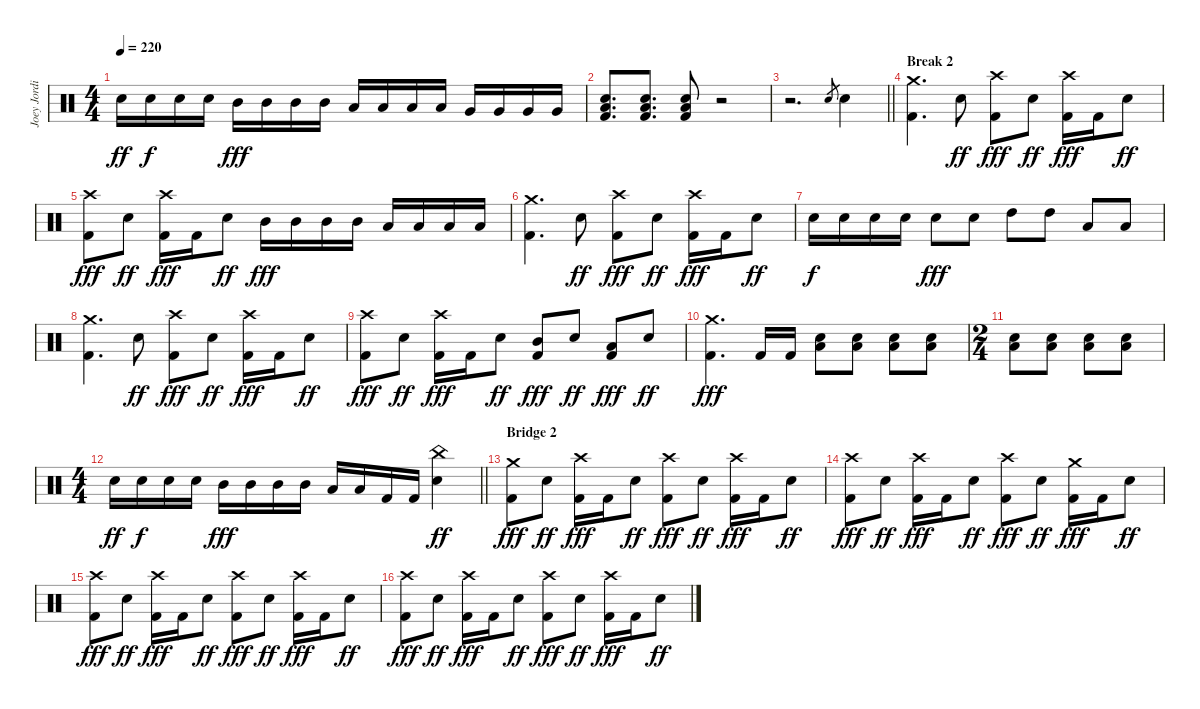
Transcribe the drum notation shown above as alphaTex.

\track ("Joey Jordison" "Joey Jordi") {instrument percussion}
\staff {score}
\articulation defaults
\ts (4 4)
\tempo 220
\clef neutral
\ks c "Electric Snare (hit)".16{dy ff} "Electric Snare (hit)".16{dy f} "Electric Snare (hit)".16 "Electric Snare (hit)".16 "Mid Tom (hit)".16{dy fff} "Mid Tom (hit)".16 "Mid Tom (hit)".16 "Mid Tom (hit)".16 "Low Tom (hit)".16 "Low Tom (hit)".16 "Low Tom (hit)".16 "Low Tom (hit)".16 "Very Low Tom (hit)".16 "Very Low Tom (hit)".16 "Very Low Tom (hit)".16 "Very Low Tom (hit)".16
|
("Electric Snare (hit)" "Low Floor Tom (hit)" "Kick (hit) 2").8{d} ("Electric Snare (hit)" "Low Floor Tom (hit)" "Kick (hit) 2").8{d} ("Electric Snare (hit)" "Low Floor Tom (hit)" "Kick (hit) 2").8 r.2 |
\barLineRight lightlight
r.2{d} "Electric Snare (hit)".8{gr} "Electric Snare (hit)".4 |
\section ("" "Break 2")
("Crash medium (hit)" "Kick (hit) 2").4{d} "Electric Snare (hit)".8{dy ff} ("Crash high (hit)" "Kick (hit) 2").8{dy fff} "Electric Snare (hit)".8{dy ff} ("Crash high (hit)" "Kick (hit) 2").16{dy fff} "Kick (hit) 2".16 "Electric Snare (hit)".8{dy ff} |
("Crash high (hit)" "Kick (hit) 2").8{dy fff} "Electric Snare (hit)".8{dy ff} ("Crash high (hit)" "Kick (hit) 2").16{dy fff} "Kick (hit) 2".16 "Electric Snare (hit)".8{dy ff} "Mid Tom (hit)".16{dy fff} "Mid Tom (hit)".16 "Mid Tom (hit)".16 "Mid Tom (hit)".16 "Low Tom (hit)".16 "Low Tom (hit)".16 "Low Tom (hit)".16 "Low Tom (hit)".16 |
("Crash medium (hit)" "Kick (hit) 2").4{d} "Electric Snare (hit)".8{dy ff} ("Crash high (hit)" "Kick (hit) 2").8{dy fff} "Electric Snare (hit)".8{dy ff} ("Crash high (hit)" "Kick (hit) 2").16{dy fff} "Kick (hit) 2".16 "Electric Snare (hit)".8{dy ff} |
"Electric Snare (hit)".16{dy f} "Electric Snare (hit)".16 "Electric Snare (hit)".16 "Electric Snare (hit)".16 "Electric Snare (hit)".8{dy fff} "Electric Snare (hit)".8 "High Tom (hit)".8 "High Tom (hit)".8 "Low Tom (hit)".8 "Low Tom (hit)".8 |
("Crash medium (hit)" "Kick (hit) 2").4{d} "Electric Snare (hit)".8{dy ff} ("Crash high (hit)" "Kick (hit) 2").8{dy fff} "Electric Snare (hit)".8{dy ff} ("Crash high (hit)" "Kick (hit) 2").16{dy fff} "Kick (hit) 2".16 "Electric Snare (hit)".8{dy ff} |
("Crash high (hit)" "Kick (hit) 2").8{dy fff} "Electric Snare (hit)".8{dy ff} ("Crash high (hit)" "Kick (hit) 2").16{dy fff} "Kick (hit) 2".16 "Electric Snare (hit)".8{dy ff} ("Mid Tom (hit)" "Kick (hit) 2").8{dy fff} "Electric Snare (hit)".8{dy ff} ("Low Tom (hit)" "Kick (hit) 2").8{dy fff} "Electric Snare (hit)".8{dy ff} |
("Crash medium (hit)" "Kick (hit) 2").4{d dy fff} "Kick (hit) 2".16 "Kick (hit) 2".16 ("Electric Snare (hit)" "Low Floor Tom (hit)").8 ("Electric Snare (hit)" "Low Floor Tom (hit)").8 ("Electric Snare (hit)" "Low Floor Tom (hit)").8 ("Electric Snare (hit)" "Low Floor Tom (hit)").8 |
\ts (2 4)
("Electric Snare (hit)" "Low Floor Tom (hit)").8 ("Electric Snare (hit)" "Low Floor Tom (hit)").8 ("Electric Snare (hit)" "Low Floor Tom (hit)").8 ("Electric Snare (hit)" "Low Floor Tom (hit)").8 |
\ts (4 4)
\barLineRight lightlight "Electric Snare (hit)".16{dy ff} "Electric Snare (hit)".16{dy f} "Electric Snare (hit)".16 "Electric Snare (hit)".16 "Mid Tom (hit)".16{dy fff} "Mid Tom (hit)".16 "Mid Tom (hit)".16 "Mid Tom (hit)".16 "Low Tom (hit)".16 "Low Tom (hit)".16 "Kick (hit) 2".16 "Kick (hit) 2".16
("China (hit)" "Electric Snare (hit)").4{dy ff} |
\section ("" "Bridge 2")
("Crash medium (hit)" "Kick (hit) 2").8{dy fff} "Electric Snare (hit)".8{dy ff} ("Crash high (hit)" "Kick (hit) 2").16{dy fff} "Kick (hit) 2".16 "Electric Snare (hit)".8{dy ff} ("Crash high (hit)" "Kick (hit) 2").8{dy fff} "Electric Snare (hit)".8{dy ff} ("Crash high (hit)" "Kick (hit) 2").16{dy fff} "Kick (hit) 2".16 "Electric Snare (hit)".8{dy ff} |
("Crash high (hit)" "Kick (hit) 2").8{dy fff} "Electric Snare (hit)".8{dy ff} ("Crash high (hit)" "Kick (hit) 2").16{dy fff} "Kick (hit) 2".16 "Electric Snare (hit)".8{dy ff} ("Crash high (hit)" "Kick (hit) 2").8{dy fff} "Electric Snare (hit)".8{dy ff} ("Crash medium (hit)" "Kick (hit) 2").16{dy fff} "Kick (hit) 2".16 "Electric Snare (hit)".8{dy ff} |
("Crash high (hit)" "Kick (hit) 2").8{dy fff} "Electric Snare (hit)".8{dy ff} ("Crash high (hit)" "Kick (hit) 2").16{dy fff} "Kick (hit) 2".16 "Electric Snare (hit)".8{dy ff} ("Crash high (hit)" "Kick (hit) 2").8{dy fff} "Electric Snare (hit)".8{dy ff} ("Crash high (hit)" "Kick (hit) 2").16{dy fff} "Kick (hit) 2".16 "Electric Snare (hit)".8{dy ff} |
("Crash high (hit)" "Kick (hit) 2").8{dy fff} "Electric Snare (hit)".8{dy ff} ("Crash high (hit)" "Kick (hit) 2").16{dy fff} "Kick (hit) 2".16 "Electric Snare (hit)".8{dy ff} ("Crash high (hit)" "Kick (hit) 2").8{dy fff} "Electric Snare (hit)".8{dy ff} ("Crash high (hit)" "Kick (hit) 2").16{dy fff} "Kick (hit) 2".16 "Electric Snare (hit)".8{dy ff}
